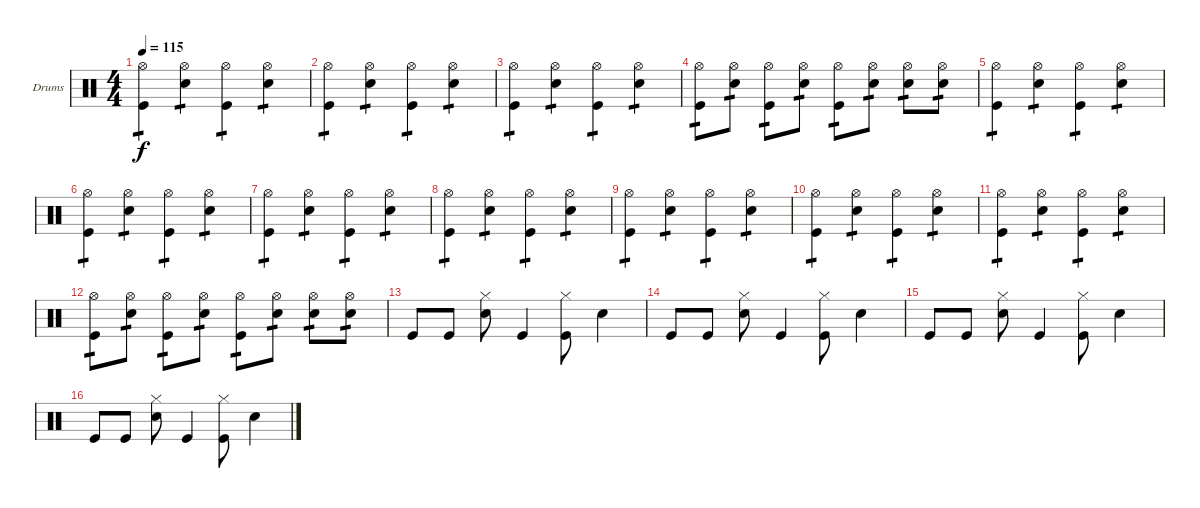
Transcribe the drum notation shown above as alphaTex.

\bracketExtendMode groupsimilarinstruments
\firstSystemTrackNameOrientation horizontal
\otherSystemsTrackNameOrientation horizontal
\track ("Drumkit" "Drums") {instrument percussion}
\staff {score}
\articulation defaults
\ts (4 4)
\tempo 115
\clef neutral
\scale
0.333333
\ks c
("Kick (hit)" "Hi-Hat (open)").4{tp 1 dy f} ("Snare (hit) 2" "Hi-Hat (open)").4{tp 1} ("Kick (hit)" "Hi-Hat (open)").4{tp 1} ("Snare (hit) 2" "Hi-Hat (open)").4{tp 1} |
\scale
0.333333 ("Kick (hit)" "Hi-Hat (open)").4{tp 1} ("Snare (hit) 2" "Hi-Hat (open)").4{tp 1} ("Kick (hit)" "Hi-Hat (open)").4{tp 1} ("Snare (hit) 2" "Hi-Hat (open)").4{tp 1} |
\scale
0.333333 ("Kick (hit)" "Hi-Hat (open)").4{tp 1} ("Snare (hit) 2" "Hi-Hat (open)").4{tp 1} ("Kick (hit)" "Hi-Hat (open)").4{tp 1} ("Snare (hit) 2" "Hi-Hat (open)").4{tp 1} |
\scale
0.333333 ("Kick (hit)" "Hi-Hat (open)").8{tp 1} ("Snare (hit) 2" "Hi-Hat (open)").8{tp 1} ("Kick (hit)" "Hi-Hat (open)").8{tp 1} ("Snare (hit) 2" "Hi-Hat (open)").8{tp 1} ("Kick (hit)" "Hi-Hat (open)").8{tp 1} ("Snare (hit) 2" "Hi-Hat (open)").8{tp 1} ("Snare (hit) 2" "Hi-Hat (open)").8{tp 1} ("Snare (hit) 2" "Hi-Hat (open)").8{tp 1} |
\scale
0.333333 ("Kick (hit)" "Hi-Hat (open)").4{tp 1} ("Snare (hit) 2" "Hi-Hat (open)").4{tp 1} ("Kick (hit)" "Hi-Hat (open)").4{tp 1} ("Snare (hit) 2" "Hi-Hat (open)").4{tp 1} |
\scale
0.333333 ("Kick (hit)" "Hi-Hat (open)").4{tp 1} ("Snare (hit) 2" "Hi-Hat (open)").4{tp 1} ("Kick (hit)" "Hi-Hat (open)").4{tp 1} ("Snare (hit) 2" "Hi-Hat (open)").4{tp 1} |
\scale
0.333333 ("Kick (hit)" "Hi-Hat (open)").4{tp 1} ("Snare (hit) 2" "Hi-Hat (open)").4{tp 1} ("Kick (hit)" "Hi-Hat (open)").4{tp 1} ("Snare (hit) 2" "Hi-Hat (open)").4{tp 1} |
\scale
0.333333 ("Kick (hit)" "Hi-Hat (open)").4{tp 1} ("Snare (hit) 2" "Hi-Hat (open)").4{tp 1} ("Kick (hit)" "Hi-Hat (open)").4{tp 1} ("Snare (hit) 2" "Hi-Hat (open)").4{tp 1} |
\scale
0.333333 ("Kick (hit)" "Hi-Hat (open)").4{tp 1} ("Snare (hit) 2" "Hi-Hat (open)").4{tp 1} ("Kick (hit)" "Hi-Hat (open)").4{tp 1} ("Snare (hit) 2" "Hi-Hat (open)").4{tp 1} |
\scale
0.333333 ("Kick (hit)" "Hi-Hat (open)").4{tp 1} ("Snare (hit) 2" "Hi-Hat (open)").4{tp 1} ("Kick (hit)" "Hi-Hat (open)").4{tp 1} ("Snare (hit) 2" "Hi-Hat (open)").4{tp 1} |
\scale
0.333333 ("Kick (hit)" "Hi-Hat (open)").4{tp 1} ("Snare (hit) 2" "Hi-Hat (open)").4{tp 1} ("Kick (hit)" "Hi-Hat (open)").4{tp 1} ("Snare (hit) 2" "Hi-Hat (open)").4{tp 1} |
\scale
0.333333 ("Kick (hit)" "Hi-Hat (open)").8{tp 1} ("Snare (hit) 2" "Hi-Hat (open)").8{tp 1} ("Kick (hit)" "Hi-Hat (open)").8{tp 1} ("Snare (hit) 2" "Hi-Hat (open)").8{tp 1} ("Kick (hit)" "Hi-Hat (open)").8{tp 1} ("Snare (hit) 2" "Hi-Hat (open)").8{tp 1} ("Snare (hit) 2" "Hi-Hat (open)").8{tp 1} ("Snare (hit) 2" "Hi-Hat (open)").8{tp 1} |
\scale
0.333333 "Kick (hit)".8 "Kick (hit)".8 ("Snare (hit) 2" "Hi-Hat (closed)").8 "Kick (hit)".4 ("Kick (hit)" "Hi-Hat (closed)").8 "Snare (hit) 2".4 |
\scale
0.333333 "Kick (hit)".8 "Kick (hit)".8 ("Snare (hit) 2" "Hi-Hat (closed)").8 "Kick (hit)".4 ("Kick (hit)" "Hi-Hat (closed)").8 "Snare (hit) 2".4 |
\scale
0.333333 "Kick (hit)".8 "Kick (hit)".8 ("Snare (hit) 2" "Hi-Hat (closed)").8 "Kick (hit)".4 ("Kick (hit)" "Hi-Hat (closed)").8 "Snare (hit) 2".4 |
\scale
0.333333 "Kick (hit)".8 "Kick (hit)".8 ("Snare (hit) 2" "Hi-Hat (closed)").8 "Kick (hit)".4 ("Kick (hit)" "Hi-Hat (closed)").8 "Snare (hit) 2".4
